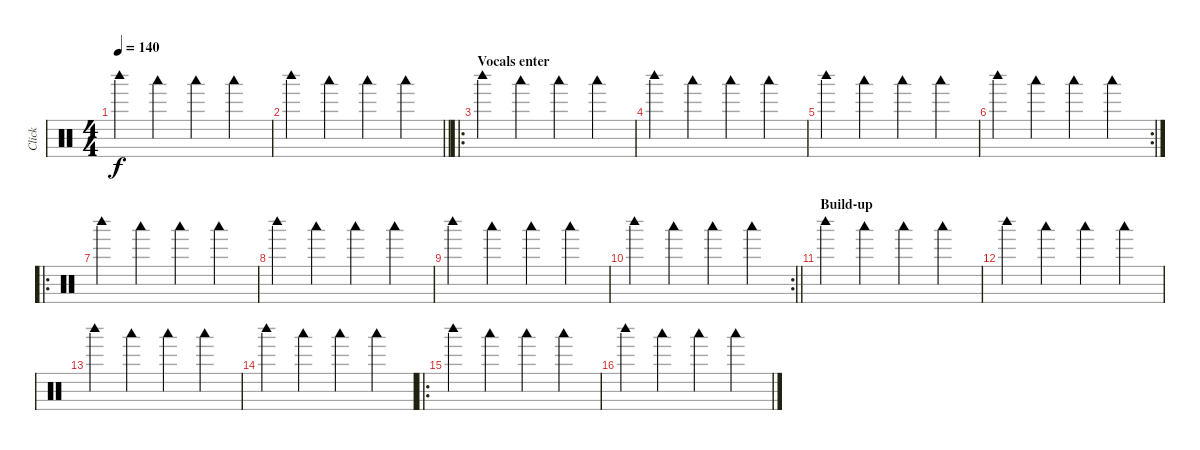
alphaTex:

\track ("Click" "Click") {mute instrument percussion}
\staff {score}
\articulation defaults
\ts (4 4)
\tempo 140
\clef neutral
\ks c "Woodblock high (hit)".4{dy f} "Woodblock low (hit)".4 "Woodblock low (hit)".4 "Woodblock low (hit)".4
|
\barLineRight lightlight "Woodblock high (hit)".4 "Woodblock low (hit)".4 "Woodblock low (hit)".4 "Woodblock low (hit)".4
|
\ro
\section ("" "Vocals enter")
"Woodblock high (hit)".4 "Woodblock low (hit)".4 "Woodblock low (hit)".4 "Woodblock low (hit)".4 |
"Woodblock high (hit)".4 "Woodblock low (hit)".4 "Woodblock low (hit)".4 "Woodblock low (hit)".4 |
"Woodblock high (hit)".4 "Woodblock low (hit)".4 "Woodblock low (hit)".4 "Woodblock low (hit)".4 |
\rc 2 "Woodblock high (hit)".4 "Woodblock low (hit)".4 "Woodblock low (hit)".4 "Woodblock low (hit)".4
|
\ro "Woodblock high (hit)".4 "Woodblock low (hit)".4 "Woodblock low (hit)".4 "Woodblock low (hit)".4
|
"Woodblock high (hit)".4 "Woodblock low (hit)".4 "Woodblock low (hit)".4 "Woodblock low (hit)".4 |
"Woodblock high (hit)".4 "Woodblock low (hit)".4 "Woodblock low (hit)".4 "Woodblock low (hit)".4 |
\rc 2
\barLineRight lightlight "Woodblock high (hit)".4 "Woodblock low (hit)".4 "Woodblock low (hit)".4 "Woodblock low (hit)".4
|
\section ("" "Build-up")
"Woodblock high (hit)".4 "Woodblock low (hit)".4 "Woodblock low (hit)".4 "Woodblock low (hit)".4 |
"Woodblock high (hit)".4 "Woodblock low (hit)".4 "Woodblock low (hit)".4 "Woodblock low (hit)".4 |
"Woodblock high (hit)".4 "Woodblock low (hit)".4 "Woodblock low (hit)".4 "Woodblock low (hit)".4 |
"Woodblock high (hit)".4 "Woodblock low (hit)".4 "Woodblock low (hit)".4 "Woodblock low (hit)".4 |
\ro "Woodblock high (hit)".4 "Woodblock low (hit)".4 "Woodblock low (hit)".4 "Woodblock low (hit)".4
|
"Woodblock high (hit)".4 "Woodblock low (hit)".4 "Woodblock low (hit)".4 "Woodblock low (hit)".4
